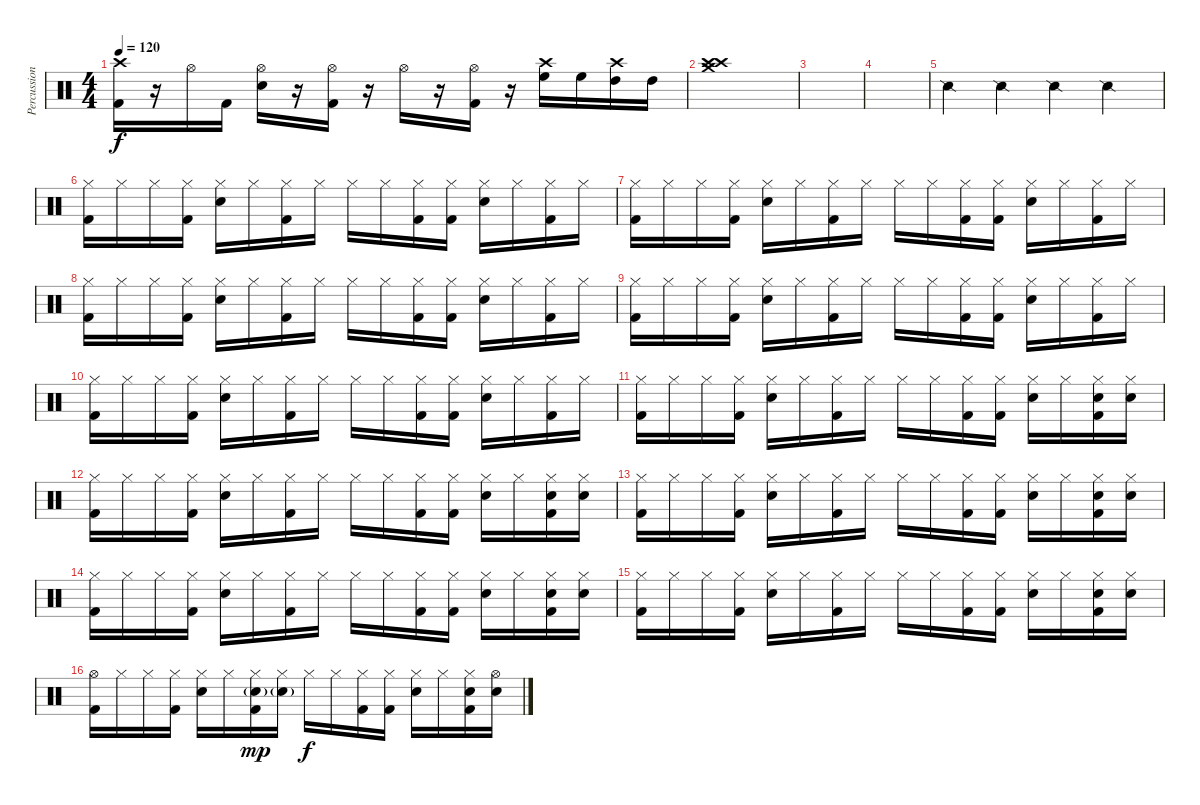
\track ("Percussion" "Percussion") {instrument percussion}
\staff {score}
\articulation defaults
\ts (4 4)
\tempo 120
\clef neutral
\ks c
("Crash high (hit)" "Kick (hit) 2").16{dy f} r.16 "Hi-Hat (open)".16 "Kick (hit) 2".16 ("Hi-Hat (open)" "Snare (hit) 2").16 r.16 ("Hi-Hat (open)" "Kick (hit) 2").16 r.16 "Hi-Hat (open)".16 r.16 ("Hi-Hat (open)" "Kick (hit) 2").16 r.16 ("Crash high (hit)" "High Floor Tom (hit)").16 "High Floor Tom (hit)".16 ("Crash high (hit)" "High Tom (hit)").16 "High Tom (hit)".16 |
("Crash high (hit)" "Crash medium (hit)" "Crash high (hit)").1 |
|
|
"Snare (side stick) 2".4 "Snare (side stick) 2".4 "Snare (side stick) 2".4 "Snare (side stick) 2".4 |
("Hi-Hat (closed)" "Kick (hit) 2").16 "Hi-Hat (closed)".16 "Hi-Hat (closed)".16 ("Hi-Hat (closed)" "Kick (hit) 2").16 ("Hi-Hat (closed)" "Snare (hit) 2").16 "Hi-Hat (closed)".16 ("Hi-Hat (closed)" "Kick (hit) 2").16 "Hi-Hat (closed)".16 "Hi-Hat (closed)".16 "Hi-Hat (closed)".16 ("Hi-Hat (closed)" "Kick (hit) 2").16 ("Hi-Hat (closed)" "Kick (hit) 2").16 ("Hi-Hat (closed)" "Snare (hit) 2").16 "Hi-Hat (closed)".16 ("Hi-Hat (closed)" "Kick (hit) 2").16 "Hi-Hat (closed)".16 |
("Hi-Hat (closed)" "Kick (hit) 2").16 "Hi-Hat (closed)".16 "Hi-Hat (closed)".16 ("Hi-Hat (closed)" "Kick (hit) 2").16 ("Hi-Hat (closed)" "Snare (hit) 2").16 "Hi-Hat (closed)".16 ("Hi-Hat (closed)" "Kick (hit) 2").16 "Hi-Hat (closed)".16 "Hi-Hat (closed)".16 "Hi-Hat (closed)".16 ("Hi-Hat (closed)" "Kick (hit) 2").16 ("Hi-Hat (closed)" "Kick (hit) 2").16 ("Hi-Hat (closed)" "Snare (hit) 2").16 "Hi-Hat (closed)".16 ("Hi-Hat (closed)" "Kick (hit) 2").16 "Hi-Hat (closed)".16 |
("Hi-Hat (closed)" "Kick (hit) 2").16 "Hi-Hat (closed)".16 "Hi-Hat (closed)".16 ("Hi-Hat (closed)" "Kick (hit) 2").16 ("Hi-Hat (closed)" "Snare (hit) 2").16 "Hi-Hat (closed)".16 ("Hi-Hat (closed)" "Kick (hit) 2").16 "Hi-Hat (closed)".16 "Hi-Hat (closed)".16 "Hi-Hat (closed)".16 ("Hi-Hat (closed)" "Kick (hit) 2").16 ("Hi-Hat (closed)" "Kick (hit) 2").16 ("Hi-Hat (closed)" "Snare (hit) 2").16 "Hi-Hat (closed)".16 ("Hi-Hat (closed)" "Kick (hit) 2").16 "Hi-Hat (closed)".16 |
("Hi-Hat (closed)" "Kick (hit) 2").16 "Hi-Hat (closed)".16 "Hi-Hat (closed)".16 ("Hi-Hat (closed)" "Kick (hit) 2").16 ("Hi-Hat (closed)" "Snare (hit) 2").16 "Hi-Hat (closed)".16 ("Hi-Hat (closed)" "Kick (hit) 2").16 "Hi-Hat (closed)".16 "Hi-Hat (closed)".16 "Hi-Hat (closed)".16 ("Hi-Hat (closed)" "Kick (hit) 2").16 ("Hi-Hat (closed)" "Kick (hit) 2").16 ("Hi-Hat (closed)" "Snare (hit) 2").16 "Hi-Hat (closed)".16 ("Hi-Hat (closed)" "Kick (hit) 2").16 "Hi-Hat (closed)".16 |
("Hi-Hat (closed)" "Kick (hit) 2").16 "Hi-Hat (closed)".16 "Hi-Hat (closed)".16 ("Hi-Hat (closed)" "Kick (hit) 2").16 ("Hi-Hat (closed)" "Snare (hit) 2").16 "Hi-Hat (closed)".16 ("Hi-Hat (closed)" "Kick (hit) 2").16 "Hi-Hat (closed)".16 "Hi-Hat (closed)".16 "Hi-Hat (closed)".16 ("Hi-Hat (closed)" "Kick (hit) 2").16 ("Hi-Hat (closed)" "Kick (hit) 2").16 ("Hi-Hat (closed)" "Snare (hit) 2").16 "Hi-Hat (closed)".16 ("Hi-Hat (closed)" "Kick (hit) 2").16 "Hi-Hat (closed)".16 |
("Hi-Hat (closed)" "Kick (hit) 2").16 "Hi-Hat (closed)".16 "Hi-Hat (closed)".16 ("Hi-Hat (closed)" "Kick (hit) 2").16 ("Hi-Hat (closed)" "Snare (hit) 2").16 "Hi-Hat (closed)".16 ("Hi-Hat (closed)" "Kick (hit) 2").16 "Hi-Hat (closed)".16 "Hi-Hat (closed)".16 "Hi-Hat (closed)".16 ("Hi-Hat (closed)" "Kick (hit) 2").16 ("Hi-Hat (closed)" "Kick (hit) 2").16 ("Hi-Hat (closed)" "Snare (hit) 2").16 "Hi-Hat (closed)".16 ("Hi-Hat (closed)" "Snare (hit) 2" "Kick (hit) 2").16 ("Hi-Hat (closed)" "Snare (hit) 2").16 |
("Hi-Hat (closed)" "Kick (hit) 2").16 "Hi-Hat (closed)".16 "Hi-Hat (closed)".16 ("Hi-Hat (closed)" "Kick (hit) 2").16 ("Hi-Hat (closed)" "Snare (hit) 2").16 "Hi-Hat (closed)".16 ("Hi-Hat (closed)" "Kick (hit) 2").16 "Hi-Hat (closed)".16 "Hi-Hat (closed)".16 "Hi-Hat (closed)".16 ("Hi-Hat (closed)" "Kick (hit) 2").16 ("Hi-Hat (closed)" "Kick (hit) 2").16 ("Hi-Hat (closed)" "Snare (hit) 2").16 "Hi-Hat (closed)".16 ("Hi-Hat (closed)" "Snare (hit) 2" "Kick (hit) 2").16 ("Hi-Hat (closed)" "Snare (hit) 2").16 |
("Hi-Hat (closed)" "Kick (hit) 2").16 "Hi-Hat (closed)".16 "Hi-Hat (closed)".16 ("Hi-Hat (closed)" "Kick (hit) 2").16 ("Hi-Hat (closed)" "Snare (hit) 2").16 "Hi-Hat (closed)".16 ("Hi-Hat (closed)" "Kick (hit) 2").16 "Hi-Hat (closed)".16 "Hi-Hat (closed)".16 "Hi-Hat (closed)".16 ("Hi-Hat (closed)" "Kick (hit) 2").16 ("Hi-Hat (closed)" "Kick (hit) 2").16 ("Hi-Hat (closed)" "Snare (hit) 2").16 "Hi-Hat (closed)".16 ("Hi-Hat (closed)" "Snare (hit) 2" "Kick (hit) 2").16 ("Hi-Hat (closed)" "Snare (hit) 2").16 |
("Hi-Hat (closed)" "Kick (hit) 2").16 "Hi-Hat (closed)".16 "Hi-Hat (closed)".16 ("Hi-Hat (closed)" "Kick (hit) 2").16 ("Hi-Hat (closed)" "Snare (hit) 2").16 "Hi-Hat (closed)".16 ("Hi-Hat (closed)" "Kick (hit) 2").16 "Hi-Hat (closed)".16 "Hi-Hat (closed)".16 "Hi-Hat (closed)".16 ("Hi-Hat (closed)" "Kick (hit) 2").16 ("Hi-Hat (closed)" "Kick (hit) 2").16 ("Hi-Hat (closed)" "Snare (hit) 2").16 "Hi-Hat (closed)".16 ("Hi-Hat (closed)" "Snare (hit) 2" "Kick (hit) 2").16 ("Hi-Hat (closed)" "Snare (hit) 2").16 |
("Hi-Hat (closed)" "Kick (hit) 2").16 "Hi-Hat (closed)".16 "Hi-Hat (closed)".16 ("Hi-Hat (closed)" "Kick (hit) 2").16 ("Hi-Hat (closed)" "Snare (hit) 2").16 "Hi-Hat (closed)".16 ("Hi-Hat (closed)" "Kick (hit) 2").16 "Hi-Hat (closed)".16 "Hi-Hat (closed)".16 "Hi-Hat (closed)".16 ("Hi-Hat (closed)" "Kick (hit) 2").16 ("Hi-Hat (closed)" "Kick (hit) 2").16 ("Hi-Hat (closed)" "Snare (hit) 2").16 "Hi-Hat (closed)".16 ("Hi-Hat (closed)" "Snare (hit) 2" "Kick (hit) 2").16 ("Hi-Hat (closed)" "Snare (hit) 2").16 |
("Hi-Hat (open)" "Kick (hit) 2").16 "Hi-Hat (closed)".16 "Hi-Hat (closed)".16 ("Hi-Hat (closed)" "Kick (hit) 2").16 ("Hi-Hat (closed)" "Snare (hit) 2").16 "Hi-Hat (closed)".16 ("Hi-Hat (closed)" "Snare (hit) 2"{g} "Kick (hit) 2").16{dy mp} ("Hi-Hat (closed)" "Snare (hit) 2"{g}).16 "Hi-Hat (closed)".16{dy f} "Hi-Hat (closed)".16 ("Hi-Hat (closed)" "Kick (hit) 2").16 ("Hi-Hat (closed)" "Kick (hit) 2").16 ("Hi-Hat (closed)" "Snare (hit) 2").16 "Hi-Hat (closed)".16 ("Hi-Hat (closed)" "Snare (hit) 2" "Kick (hit) 2").16 ("Hi-Hat (open)" "Snare (hit) 2").16
